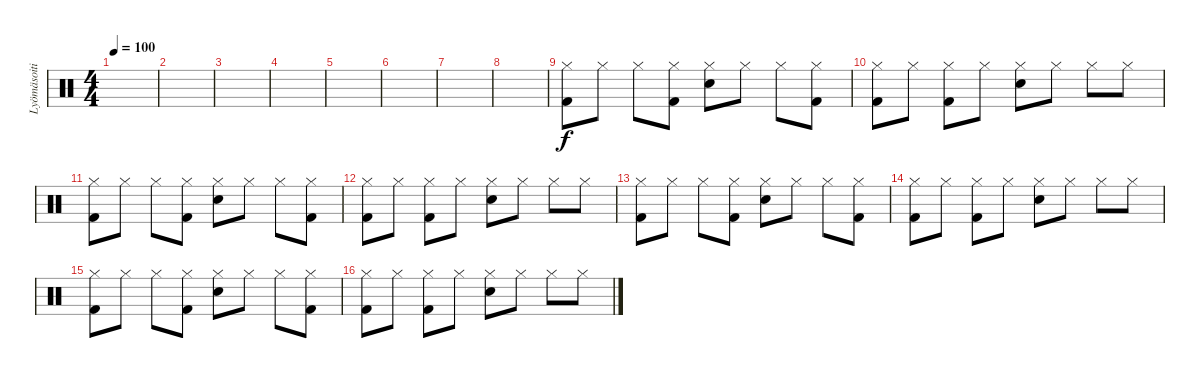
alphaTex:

\track ("Lyömäsoitin" "Lyömäsoiti") {instrument percussion}
\staff {score}
\articulation defaults
\ts (4 4)
\tempo 100
\clef neutral
\ks c
|
|
|
|
|
|
|
|
("Hi-Hat (closed)" "Kick (hit) 2").8 "Hi-Hat (closed)".8 "Hi-Hat (closed)".8 ("Hi-Hat (closed)" "Kick (hit) 2").8 ("Hi-Hat (closed)" "Snare (hit) 2").8 "Hi-Hat (closed)".8 "Hi-Hat (closed)".8 ("Hi-Hat (closed)" "Kick (hit) 2").8 |
("Hi-Hat (closed)" "Kick (hit) 2").8 "Hi-Hat (closed)".8 ("Hi-Hat (closed)" "Kick (hit) 2").8 "Hi-Hat (closed)".8 ("Hi-Hat (closed)" "Snare (hit) 2").8 "Hi-Hat (closed)".8 "Hi-Hat (closed)".8 "Hi-Hat (closed)".8 |
("Hi-Hat (closed)" "Kick (hit) 2").8 "Hi-Hat (closed)".8 "Hi-Hat (closed)".8 ("Hi-Hat (closed)" "Kick (hit) 2").8 ("Hi-Hat (closed)" "Snare (hit) 2").8 "Hi-Hat (closed)".8 "Hi-Hat (closed)".8 ("Hi-Hat (closed)" "Kick (hit) 2").8 |
("Hi-Hat (closed)" "Kick (hit) 2").8 "Hi-Hat (closed)".8 ("Hi-Hat (closed)" "Kick (hit) 2").8 "Hi-Hat (closed)".8 ("Hi-Hat (closed)" "Snare (hit) 2").8 "Hi-Hat (closed)".8 "Hi-Hat (closed)".8 "Hi-Hat (closed)".8 |
("Hi-Hat (closed)" "Kick (hit) 2").8 "Hi-Hat (closed)".8 "Hi-Hat (closed)".8 ("Hi-Hat (closed)" "Kick (hit) 2").8 ("Hi-Hat (closed)" "Snare (hit) 2").8 "Hi-Hat (closed)".8 "Hi-Hat (closed)".8 ("Hi-Hat (closed)" "Kick (hit) 2").8 |
("Hi-Hat (closed)" "Kick (hit) 2").8 "Hi-Hat (closed)".8 ("Hi-Hat (closed)" "Kick (hit) 2").8 "Hi-Hat (closed)".8 ("Hi-Hat (closed)" "Snare (hit) 2").8 "Hi-Hat (closed)".8 "Hi-Hat (closed)".8 "Hi-Hat (closed)".8 |
("Hi-Hat (closed)" "Kick (hit) 2").8 "Hi-Hat (closed)".8 "Hi-Hat (closed)".8 ("Hi-Hat (closed)" "Kick (hit) 2").8 ("Hi-Hat (closed)" "Snare (hit) 2").8 "Hi-Hat (closed)".8 "Hi-Hat (closed)".8 ("Hi-Hat (closed)" "Kick (hit) 2").8 |
("Hi-Hat (closed)" "Kick (hit) 2").8 "Hi-Hat (closed)".8 ("Hi-Hat (closed)" "Kick (hit) 2").8 "Hi-Hat (closed)".8 ("Hi-Hat (closed)" "Snare (hit) 2").8 "Hi-Hat (closed)".8 "Hi-Hat (closed)".8 "Hi-Hat (closed)".8
